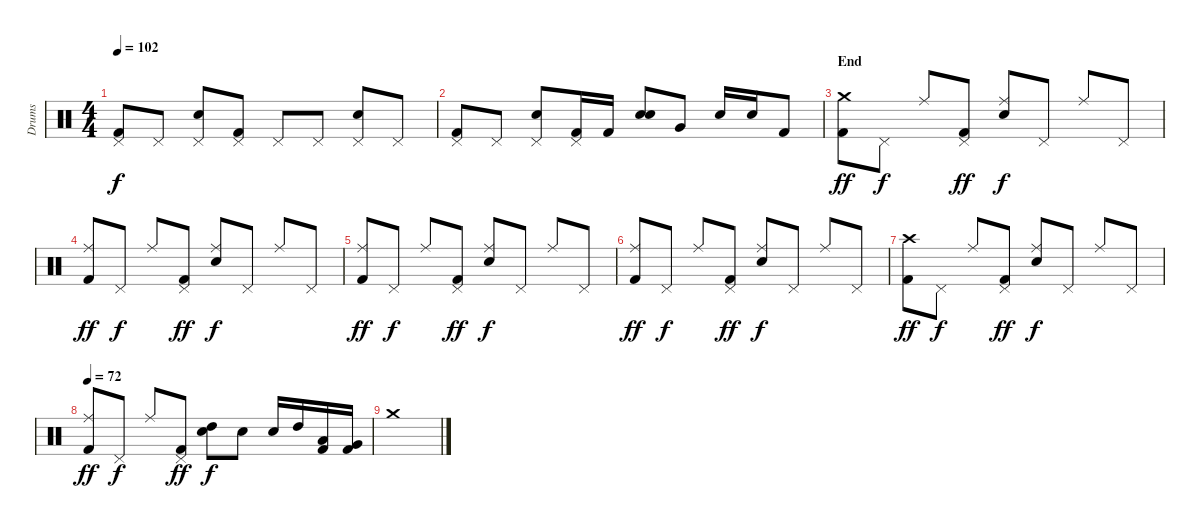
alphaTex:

\track ("Drums" "Drums") {instrument percussion}
\staff {score}
\articulation defaults
\ts (4 4)
\tempo 102
\clef neutral
\ks c
("Pedal Hi-Hat (hit)" "Kick (hit) 2").8{dy f} "Pedal Hi-Hat (hit)".8 ("Electric Snare (hit)" "Pedal Hi-Hat (hit)").8 ("Pedal Hi-Hat (hit)" "Kick (hit) 2").8 "Pedal Hi-Hat (hit)".8 "Pedal Hi-Hat (hit)".8 ("Electric Snare (hit)" "Pedal Hi-Hat (hit)").8 "Pedal Hi-Hat (hit)".8 |
("Pedal Hi-Hat (hit)" "Kick (hit) 2").8 "Pedal Hi-Hat (hit)".8 ("Electric Snare (hit)" "Pedal Hi-Hat (hit)").8 ("Pedal Hi-Hat (hit)" "Kick (hit) 2").16 "Kick (hit) 2".16 ("Electric Snare (hit)" "Electric Snare (hit)").8 "Very Low Tom (hit)".8 "Electric Snare (hit)".16 "Electric Snare (hit)".16 "Kick (hit) 2".8 |
\section ("" "End")
("Crash medium (hit)" "Kick (hit) 2").8{dy ff} "Pedal Hi-Hat (hit)".8{dy f} "Ride (middle)".8 ("Pedal Hi-Hat (hit)" "Kick (hit) 2").8{dy ff} ("Electric Snare (hit)" "Ride (middle)").8{dy f} "Pedal Hi-Hat (hit)".8 "Ride (middle)".8 "Pedal Hi-Hat (hit)".8 |
("Ride (middle)" "Kick (hit) 2").8{dy ff} "Pedal Hi-Hat (hit)".8{dy f} "Ride (middle)".8 ("Pedal Hi-Hat (hit)" "Kick (hit) 2").8{dy ff} ("Electric Snare (hit)" "Ride (middle)").8{dy f} "Pedal Hi-Hat (hit)".8 "Ride (middle)".8 "Pedal Hi-Hat (hit)".8 |
("Ride (middle)" "Kick (hit) 2").8{dy ff} "Pedal Hi-Hat (hit)".8{dy f} "Ride (middle)".8 ("Pedal Hi-Hat (hit)" "Kick (hit) 2").8{dy ff} ("Electric Snare (hit)" "Ride (middle)").8{dy f} "Pedal Hi-Hat (hit)".8 "Ride (middle)".8 "Pedal Hi-Hat (hit)".8 |
("Ride (middle)" "Kick (hit) 2").8{dy ff} "Pedal Hi-Hat (hit)".8{dy f} "Ride (middle)".8 ("Pedal Hi-Hat (hit)" "Kick (hit) 2").8{dy ff} ("Electric Snare (hit)" "Ride (middle)").8{dy f} "Pedal Hi-Hat (hit)".8 "Ride (middle)".8 "Pedal Hi-Hat (hit)".8 |
("Crash high (hit)" "Kick (hit) 2").8{dy ff} "Pedal Hi-Hat (hit)".8{dy f} "Ride (middle)".8 ("Pedal Hi-Hat (hit)" "Kick (hit) 2").8{dy ff} ("Electric Snare (hit)" "Ride (middle)").8{dy f} "Pedal Hi-Hat (hit)".8 "Ride (middle)".8 "Pedal Hi-Hat (hit)".8 |
\tempo 72
("Ride (middle)" "Kick (hit) 2").8{dy ff} "Pedal Hi-Hat (hit)".8{dy f} "Ride (middle)".8 ("Pedal Hi-Hat (hit)" "Kick (hit) 2").8{dy ff} ("Electric Snare (hit)" "High Tom (hit)").8{dy f} "Electric Snare (hit)".8 "Electric Snare (hit)".16 "High Tom (hit)".16 ("Low Tom (hit)" "Kick (hit) 2").16 ("Very Low Tom (hit)" "Kick (hit) 2").16 |
"Crash medium (hit)".1
